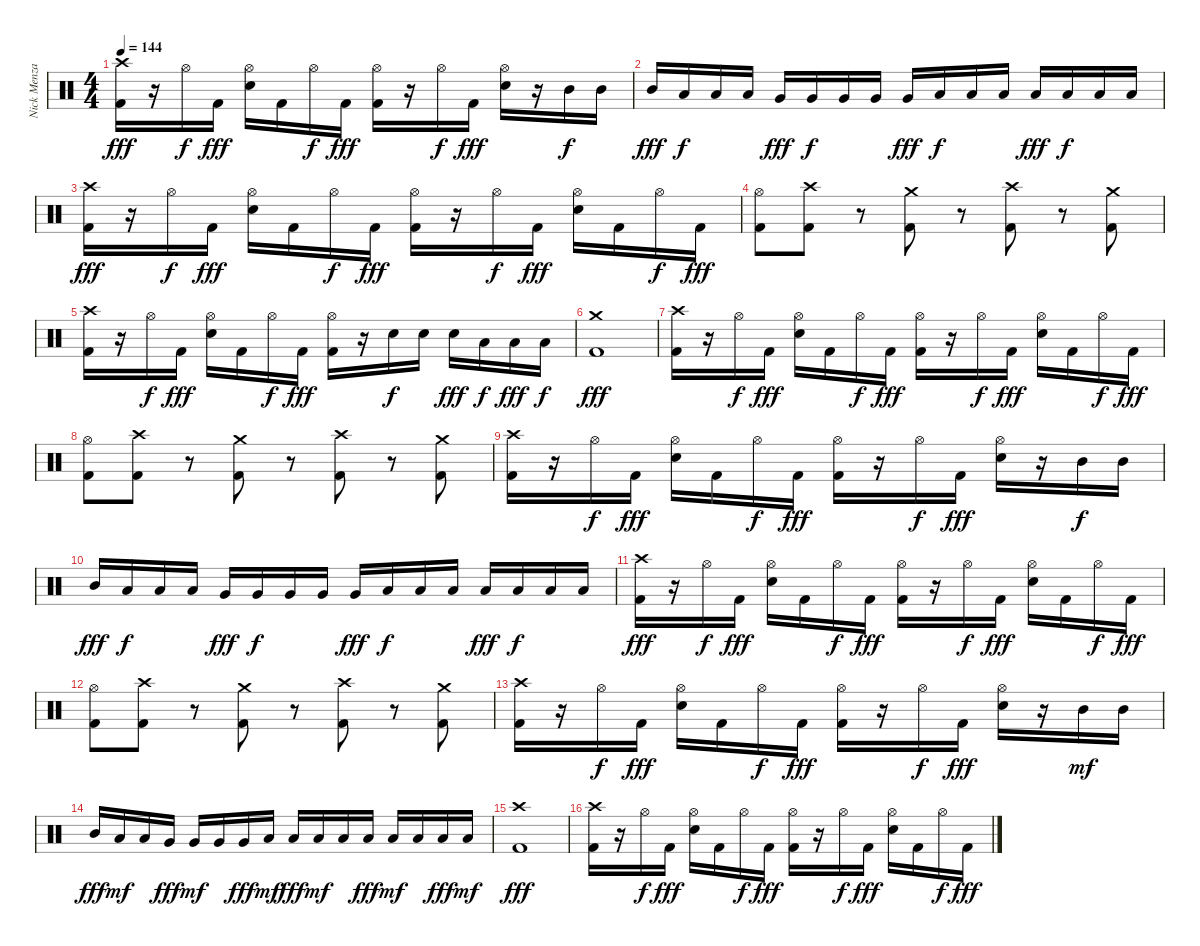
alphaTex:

\track ("Nick Menza" "Nick Menza") {instrument percussion}
\staff {score}
\articulation defaults
\ts (4 4)
\tempo 144
\clef neutral
\ks c
("Kick (hit) 2" "Crash high (hit)").16{dy fff} r.16 "Hi-Hat (open)".16{dy f} "Kick (hit) 2".16{dy fff} ("Electric Snare (hit)" "Hi-Hat (open)").16 "Kick (hit) 2".16 "Hi-Hat (open)".16{dy f} "Kick (hit) 2".16{dy fff} ("Kick (hit) 2" "Hi-Hat (open)").16 r.16 "Hi-Hat (open)".16{dy f} "Kick (hit) 2".16{dy fff} ("Electric Snare (hit)" "Hi-Hat (open)").16 r.16 "Mid Tom (hit)".16{dy f} "Mid Tom (hit)".16 |
"Mid Tom (hit)".16{dy fff} "Low Tom (hit)".16{dy f} "Low Tom (hit)".16 "Low Tom (hit)".16 "Very Low Tom (hit)".16{dy fff} "Very Low Tom (hit)".16{dy f} "Very Low Tom (hit)".16 "Very Low Tom (hit)".16 "Very Low Tom (hit)".16{dy fff} "Low Floor Tom (hit)".16{dy f} "Low Floor Tom (hit)".16 "Low Floor Tom (hit)".16 "Low Floor Tom (hit)".16{dy fff} "Low Floor Tom (hit)".16{dy f} "Low Floor Tom (hit)".16 "Low Floor Tom (hit)".16 |
("Kick (hit) 2" "Crash high (hit)").16{dy fff} r.16 "Hi-Hat (open)".16{dy f} "Kick (hit) 2".16{dy fff} ("Electric Snare (hit)" "Hi-Hat (open)").16 "Kick (hit) 2".16 "Hi-Hat (open)".16{dy f} "Kick (hit) 2".16{dy fff} ("Kick (hit) 2" "Hi-Hat (open)").16 r.16 "Hi-Hat (open)".16{dy f} "Kick (hit) 2".16{dy fff} ("Electric Snare (hit)" "Hi-Hat (open)").16 "Kick (hit) 2".16 "Hi-Hat (open)".16{dy f} "Kick (hit) 2".16{dy fff} |
("Kick (hit) 2" "Hi-Hat (open)").8 ("Kick (hit) 2" "Crash high (hit)").8 r.8 ("Kick (hit) 2" "Crash medium (hit)").8 r.8 ("Kick (hit) 2" "Crash high (hit)").8 r.8 ("Kick (hit) 2" "Crash medium (hit)").8 |
("Kick (hit) 2" "Crash high (hit)").16 r.16 "Hi-Hat (open)".16{dy f} "Kick (hit) 2".16{dy fff} ("Electric Snare (hit)" "Hi-Hat (open)").16 "Kick (hit) 2".16 "Hi-Hat (open)".16{dy f} "Kick (hit) 2".16{dy fff} ("Kick (hit) 2" "Hi-Hat (open)").16 r.16 "Electric Snare (hit)".16{dy f} "Electric Snare (hit)".16 "Electric Snare (hit)".16{dy fff} "Low Tom (hit)".16{dy f} "Low Tom (hit)".16{dy fff} "Low Tom (hit)".16{dy f} |
("Kick (hit) 2" "Crash medium (hit)").1{dy fff} |
("Kick (hit) 2" "Crash high (hit)").16 r.16 "Hi-Hat (open)".16{dy f} "Kick (hit) 2".16{dy fff} ("Electric Snare (hit)" "Hi-Hat (open)").16 "Kick (hit) 2".16 "Hi-Hat (open)".16{dy f} "Kick (hit) 2".16{dy fff} ("Kick (hit) 2" "Hi-Hat (open)").16 r.16 "Hi-Hat (open)".16{dy f} "Kick (hit) 2".16{dy fff} ("Electric Snare (hit)" "Hi-Hat (open)").16 "Kick (hit) 2".16 "Hi-Hat (open)".16{dy f} "Kick (hit) 2".16{dy fff} |
("Kick (hit) 2" "Hi-Hat (open)").8 ("Kick (hit) 2" "Crash high (hit)").8 r.8 ("Kick (hit) 2" "Crash medium (hit)").8 r.8 ("Kick (hit) 2" "Crash high (hit)").8 r.8 ("Kick (hit) 2" "Crash medium (hit)").8 |
("Kick (hit) 2" "Crash high (hit)").16 r.16 "Hi-Hat (open)".16{dy f} "Kick (hit) 2".16{dy fff} ("Electric Snare (hit)" "Hi-Hat (open)").16 "Kick (hit) 2".16 "Hi-Hat (open)".16{dy f} "Kick (hit) 2".16{dy fff} ("Kick (hit) 2" "Hi-Hat (open)").16 r.16 "Hi-Hat (open)".16{dy f} "Kick (hit) 2".16{dy fff} ("Electric Snare (hit)" "Hi-Hat (open)").16 r.16 "Mid Tom (hit)".16{dy f} "Mid Tom (hit)".16 |
"Mid Tom (hit)".16{dy fff} "Low Tom (hit)".16{dy f} "Low Tom (hit)".16 "Low Tom (hit)".16 "Very Low Tom (hit)".16{dy fff} "Very Low Tom (hit)".16{dy f} "Very Low Tom (hit)".16 "Very Low Tom (hit)".16 "Very Low Tom (hit)".16{dy fff} "Low Floor Tom (hit)".16{dy f} "Low Floor Tom (hit)".16 "Low Floor Tom (hit)".16 "Low Floor Tom (hit)".16{dy fff} "Low Floor Tom (hit)".16{dy f} "Low Floor Tom (hit)".16 "Low Floor Tom (hit)".16 |
("Kick (hit) 2" "Crash high (hit)").16{dy fff} r.16 "Hi-Hat (open)".16{dy f} "Kick (hit) 2".16{dy fff} ("Electric Snare (hit)" "Hi-Hat (open)").16 "Kick (hit) 2".16 "Hi-Hat (open)".16{dy f} "Kick (hit) 2".16{dy fff} ("Kick (hit) 2" "Hi-Hat (open)").16 r.16 "Hi-Hat (open)".16{dy f} "Kick (hit) 2".16{dy fff} ("Electric Snare (hit)" "Hi-Hat (open)").16 "Kick (hit) 2".16 "Hi-Hat (open)".16{dy f} "Kick (hit) 2".16{dy fff} |
("Kick (hit) 2" "Hi-Hat (open)").8 ("Kick (hit) 2" "Crash high (hit)").8 r.8 ("Kick (hit) 2" "Crash medium (hit)").8 r.8 ("Kick (hit) 2" "Crash high (hit)").8 r.8 ("Kick (hit) 2" "Crash medium (hit)").8 |
("Kick (hit) 2" "Crash high (hit)").16 r.16 "Hi-Hat (open)".16{dy f} "Kick (hit) 2".16{dy fff} ("Electric Snare (hit)" "Hi-Hat (open)").16 "Kick (hit) 2".16 "Hi-Hat (open)".16{dy f} "Kick (hit) 2".16{dy fff} ("Kick (hit) 2" "Hi-Hat (open)").16 r.16 "Hi-Hat (open)".16{dy f} "Kick (hit) 2".16{dy fff} ("Electric Snare (hit)" "Hi-Hat (open)").16 r.16 "Mid Tom (hit)".16{dy mf} "Mid Tom (hit)".16 |
"Mid Tom (hit)".16{dy fff} "Low Tom (hit)".16{dy mf} "Low Tom (hit)".16 "Very Low Tom (hit)".16{dy fff} "Very Low Tom (hit)".16{dy mf} "Very Low Tom (hit)".16 "Very Low Tom (hit)".16{dy fff} "Low Floor Tom (hit)".16{dy mf} "Low Floor Tom (hit)".16{dy fff} "Low Floor Tom (hit)".16{dy mf} "Low Floor Tom (hit)".16 "Low Floor Tom (hit)".16{dy fff} "Low Floor Tom (hit)".16{dy mf} "Low Floor Tom (hit)".16 "Low Floor Tom (hit)".16{dy fff} "Low Floor Tom (hit)".16{dy mf} |
("Kick (hit) 2" "Crash high (hit)").1{dy fff} |
("Kick (hit) 2" "Crash high (hit)").16 r.16 "Hi-Hat (open)".16{dy f} "Kick (hit) 2".16{dy fff} ("Electric Snare (hit)" "Hi-Hat (open)").16 "Kick (hit) 2".16 "Hi-Hat (open)".16{dy f} "Kick (hit) 2".16{dy fff} ("Kick (hit) 2" "Hi-Hat (open)").16 r.16 "Hi-Hat (open)".16{dy f} "Kick (hit) 2".16{dy fff} ("Electric Snare (hit)" "Hi-Hat (open)").16 "Kick (hit) 2".16 "Hi-Hat (open)".16{dy f} "Kick (hit) 2".16{dy fff}
